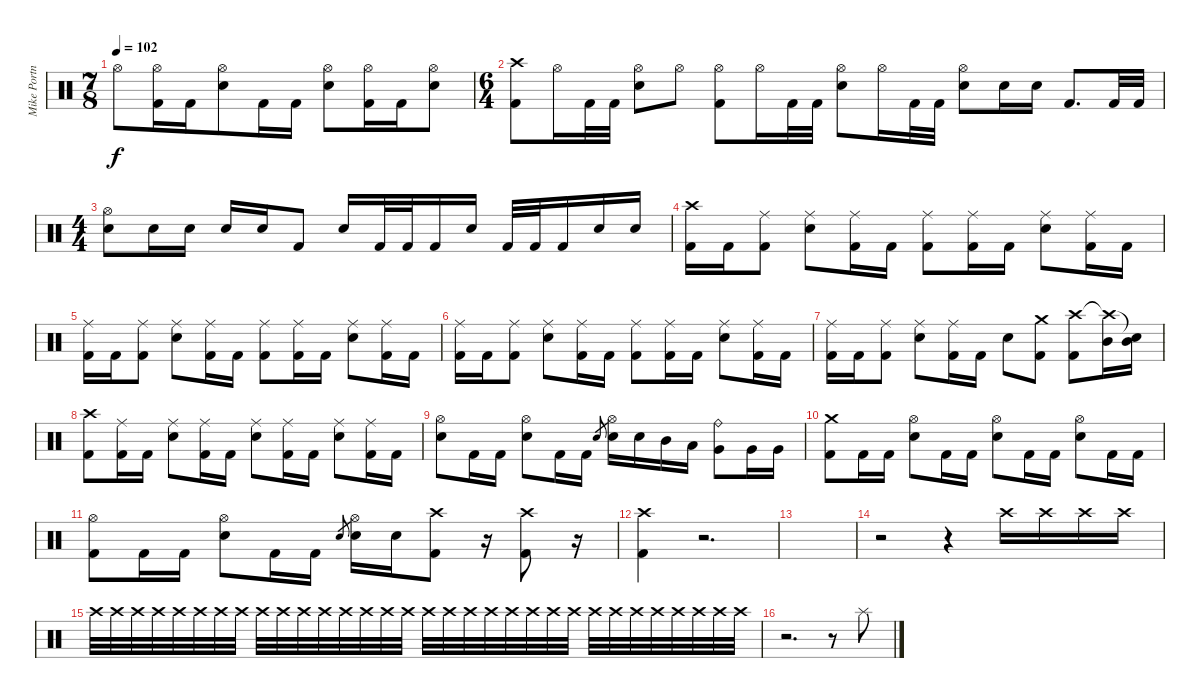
\track ("Mike Portnoy Drum " "Mike Portn") {instrument percussion}
\staff {score}
\articulation defaults
\ts (7 8)
\tempo 102
\clef neutral
\ks c "Hi-Hat (open)".8{dy f}
("Hi-Hat (open)" "Kick (hit) 2").16 "Kick (hit) 2".16 ("Hi-Hat (open)" "Electric Snare (hit)").8 "Kick (hit) 2".16 "Kick (hit) 2".16 ("Hi-Hat (open)" "Electric Snare (hit)").8 ("Hi-Hat (open)" "Kick (hit) 2").16 "Kick (hit) 2".16 ("Hi-Hat (open)" "Electric Snare (hit)").8 |
\ts (6 4)
("Crash high (hit)" "Kick (hit) 2").8 "Hi-Hat (open)".16 "Kick (hit) 2".32 "Kick (hit) 2".32 ("Hi-Hat (open)" "Electric Snare (hit)").8 "Hi-Hat (open)".8 ("Hi-Hat (open)" "Kick (hit) 2").8 "Hi-Hat (open)".16 "Kick (hit) 2".32 "Kick (hit) 2".32 ("Hi-Hat (open)" "Electric Snare (hit)").8 "Hi-Hat (open)".16 "Kick (hit) 2".32 "Kick (hit) 2".32 ("Hi-Hat (open)" "Electric Snare (hit)").8 "Electric Snare (hit)".16 "Electric Snare (hit)".16 "Kick (hit) 2".8{d} "Kick (hit) 2".32 "Kick (hit) 2".32 |
\ts (4 4)
("Hi-Hat (open)" "Electric Snare (hit)").8 "Electric Snare (hit)".16 "Electric Snare (hit)".16 "Electric Snare (hit)".16 "Electric Snare (hit)".16 "Kick (hit) 2".8 "Electric Snare (hit)".16 "Kick (hit) 2".32 "Kick (hit) 2".32 "Kick (hit) 2".16 "Electric Snare (hit)".16 "Kick (hit) 2".32 "Kick (hit) 2".32 "Kick (hit) 2".16 "Electric Snare (hit)".16 "Electric Snare (hit)".16 |
("Crash high (hit)" "Kick (hit) 2").16 "Kick (hit) 2".16 ("Ride (middle)" "Kick (hit) 2").8 ("Ride (middle)" "Electric Snare (hit)").8 ("Ride (middle)" "Kick (hit) 2").16 "Kick (hit) 2".16 ("Ride (middle)" "Kick (hit) 2").8 ("Ride (middle)" "Kick (hit) 2").16 "Kick (hit) 2".16 ("Ride (middle)" "Electric Snare (hit)").8 ("Ride (middle)" "Kick (hit) 2").16 "Kick (hit) 2".16 |
("Ride (middle)" "Kick (hit) 2").16 "Kick (hit) 2".16 ("Ride (middle)" "Kick (hit) 2").8 ("Ride (middle)" "Electric Snare (hit)").8 ("Ride (middle)" "Kick (hit) 2").16 "Kick (hit) 2".16 ("Ride (middle)" "Kick (hit) 2").8 ("Ride (middle)" "Kick (hit) 2").16 "Kick (hit) 2".16 ("Ride (middle)" "Electric Snare (hit)").8 ("Ride (middle)" "Kick (hit) 2").16 "Kick (hit) 2".16 |
("Ride (middle)" "Kick (hit) 2").16 "Kick (hit) 2".16 ("Ride (middle)" "Kick (hit) 2").8 ("Ride (middle)" "Electric Snare (hit)").8 ("Ride (middle)" "Kick (hit) 2").16 "Kick (hit) 2".16 ("Ride (middle)" "Kick (hit) 2").8 ("Ride (middle)" "Kick (hit) 2").16 "Kick (hit) 2".16 ("Ride (middle)" "Electric Snare (hit)").8 ("Ride (middle)" "Kick (hit) 2").16 "Kick (hit) 2".16 |
("Ride (middle)" "Kick (hit) 2").16 "Kick (hit) 2".16 ("Ride (middle)" "Kick (hit) 2").8 ("Ride (middle)" "Electric Snare (hit)").8 ("Ride (middle)" "Kick (hit) 2").16 "Kick (hit) 2".16 "Electric Snare (hit)".8 ("Crash medium (hit)" "Kick (hit) 2").8 ("Crash high (hit)" "Kick (hit) 2").8 ("Crash high (hit)"{t} "Mid Tom (hit)").16 ("Snare (hit)"{t} "Mid Tom (hit)").16 |
("Crash high (hit)" "Kick (hit) 2").8 ("Ride (middle)" "Kick (hit) 2").16 "Kick (hit) 2".16 ("Ride (middle)" "Electric Snare (hit)").8 ("Ride (middle)" "Kick (hit) 2").16 "Kick (hit) 2".16 ("Ride (middle)" "Electric Snare (hit)").8 ("Ride (middle)" "Kick (hit) 2").16 "Kick (hit) 2".16 ("Ride (middle)" "Electric Snare (hit)").8 ("Ride (middle)" "Kick (hit) 2").16 "Kick (hit) 2".16 |
("Hi-Hat (open)" "Electric Snare (hit)").8 "Kick (hit) 2".16 "Kick (hit) 2".16 ("Hi-Hat (open)" "Electric Snare (hit)").8 "Kick (hit) 2".16 "Kick (hit) 2".16 "Electric Snare (hit)".8{gr} ("Hi-Hat (open)" "Electric Snare (hit)").16 "Electric Snare (hit)".16 "Mid Tom (hit)".16 "Low Tom (hit)".16 ("Ride (bell)" "Very Low Tom (hit)").8 "Very Low Tom (hit)".16 "Very Low Tom (hit)".16 |
("Crash medium (hit)" "Kick (hit) 2").8 "Kick (hit) 2".16 "Kick (hit) 2".16 ("Hi-Hat (open)" "Electric Snare (hit)").8 "Kick (hit) 2".16 "Kick (hit) 2".16 ("Hi-Hat (open)" "Electric Snare (hit)").8 "Kick (hit) 2".16 "Kick (hit) 2".16 ("Hi-Hat (open)" "Electric Snare (hit)").8 "Kick (hit) 2".16 "Kick (hit) 2".16 |
("Hi-Hat (open)" "Kick (hit) 2").8 "Kick (hit) 2".16 "Kick (hit) 2".16 ("Hi-Hat (open)" "Electric Snare (hit)").8 "Kick (hit) 2".16 "Kick (hit) 2".16 "Electric Snare (hit)".8{gr} ("Hi-Hat (open)" "Electric Snare (hit)").16 "Electric Snare (hit)".16 ("Crash high (hit)" "Kick (hit) 2").8 r.16 ("Crash high (hit)" "Kick (hit) 2").8 r.16 |
("Crash high (hit)" "Kick (hit) 2").4 r.2{d} |
|
r.2{volume 0} r.4 "Crash high (hit)".16 "Crash high (hit)".16 "Crash high (hit)".16 "Crash high (hit)".16{volume 15} |
"Crash high (hit)".32 "Crash high (hit)".32 "Crash high (hit)".32 "Crash high (hit)".32 "Crash high (hit)".32 "Crash high (hit)".32 "Crash high (hit)".32 "Crash high (hit)".32 "Crash high (hit)".32 "Crash high (hit)".32 "Crash high (hit)".32 "Crash high (hit)".32 "Crash high (hit)".32 "Crash high (hit)".32 "Crash high (hit)".32 "Crash high (hit)".32 "Crash high (hit)".32 "Crash high (hit)".32 "Crash high (hit)".32 "Crash high (hit)".32 "Crash high (hit)".32 "Crash high (hit)".32 "Crash high (hit)".32 "Crash high (hit)".32 "Crash high (hit)".32 "Crash high (hit)".32 "Crash high (hit)".32 "Crash high (hit)".32 "Crash high (hit)".32 "Crash high (hit)".32 "Crash high (hit)".32 "Crash high (hit)".32 |
r.2{d} r.8 "Splash (hit)".8
